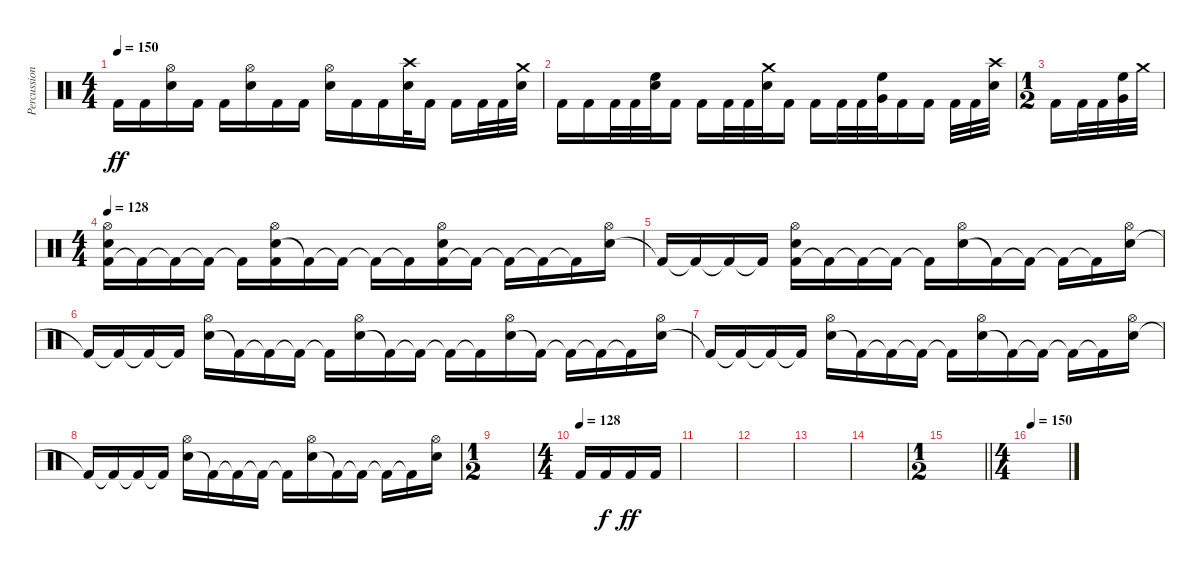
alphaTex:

\track ("Percussion" "Percussion") {instrument percussion}
\staff {score}
\articulation defaults
\ts (4 4)
\tempo 150
\clef neutral
\ks c "Kick (hit) 2".16{dy ff} "Kick (hit) 2".16
("Electric Snare (hit)" "Hi-Hat (open)").16 "Kick (hit) 2".16 "Kick (hit) 2".16 ("Electric Snare (hit)" "Hi-Hat (open)").16 "Kick (hit) 2".16 "Kick (hit) 2".16 ("Electric Snare (hit)" "Hi-Hat (open)").16 "Kick (hit) 2".16 "Kick (hit) 2".16 ("Crash high (hit)" "Electric Snare (hit)").32 "Kick (hit) 2".16 "Kick (hit) 2".16 "Kick (hit) 2".32 "Kick (hit) 2".32 ("Crash medium (hit)" "Electric Snare (hit)").32 |
"Kick (hit) 2".16 "Kick (hit) 2".16 "Kick (hit) 2".32 "Kick (hit) 2".32 ("High Floor Tom (hit)" "Electric Snare (hit)").32 "Kick (hit) 2".16 "Kick (hit) 2".16 "Kick (hit) 2".32 "Kick (hit) 2".32 ("Crash medium (hit)" "Electric Snare (hit)").32 "Kick (hit) 2".16 "Kick (hit) 2".16 "Kick (hit) 2".32 "Kick (hit) 2".32 ("High Floor Tom (hit)" "Very Low Tom (hit)").32 "Kick (hit) 2".16 "Kick (hit) 2".16 "Kick (hit) 2".32 "Kick (hit) 2".32 ("Crash high (hit)" "Electric Snare (hit)").32 |
\ts (1 2)
"Kick (hit) 2".16 "Kick (hit) 2".32 "Kick (hit) 2".32 ("High Floor Tom (hit)" "Very Low Tom (hit)").32 "Crash medium (hit)".32 |
\ts (4 4)
\tempo 128
("Kick (hit) 2" "Hi-Hat (open)" "Electric Snare (hit)").16 "Kick (hit) 2"{t}.16 "Kick (hit) 2"{t}.16 "Kick (hit) 2"{t}.16 "Kick (hit) 2"{t}.16 ("Electric Snare (hit)" "Hi-Hat (open)" "Kick (hit) 2").16 "Kick (hit) 2"{t}.16 "Kick (hit) 2"{t}.16 "Kick (hit) 2"{t}.16 "Kick (hit) 2"{t}.16 ("Kick (hit) 2" "Hi-Hat (open)" "Electric Snare (hit)").16 "Kick (hit) 2"{t}.16 "Kick (hit) 2"{t}.16 "Kick (hit) 2"{t}.16 "Kick (hit) 2"{t}.16 ("Electric Snare (hit)" "Hi-Hat (open)").16 |
"Kick (hit) 2"{t}.16 "Kick (hit) 2"{t}.16 "Kick (hit) 2"{t}.16 "Kick (hit) 2"{t}.16 ("Kick (hit) 2" "Hi-Hat (open)" "Electric Snare (hit)").16 "Kick (hit) 2"{t}.16 "Kick (hit) 2"{t}.16 "Kick (hit) 2"{t}.16 "Kick (hit) 2"{t}.16 ("Electric Snare (hit)" "Hi-Hat (open)").16 "Kick (hit) 2"{t}.16 "Kick (hit) 2"{t}.16 "Kick (hit) 2"{t}.16 "Kick (hit) 2"{t}.16 ("Electric Snare (hit)" "Hi-Hat (open)").16 |
"Kick (hit) 2"{t}.16 "Kick (hit) 2"{t}.16 "Kick (hit) 2"{t}.16 "Kick (hit) 2"{t}.16 ("Electric Snare (hit)" "Hi-Hat (open)").16 "Kick (hit) 2"{t}.16 "Kick (hit) 2"{t}.16 "Kick (hit) 2"{t}.16 "Kick (hit) 2"{t}.16 ("Electric Snare (hit)" "Hi-Hat (open)").16 "Kick (hit) 2"{t}.16 "Kick (hit) 2"{t}.16 "Kick (hit) 2"{t}.16 "Kick (hit) 2"{t}.16 ("Electric Snare (hit)" "Hi-Hat (open)").16 "Kick (hit) 2"{t}.16 "Kick (hit) 2"{t}.16 "Kick (hit) 2"{t}.16 "Kick (hit) 2"{t}.16 ("Electric Snare (hit)" "Hi-Hat (open)").16 |
"Kick (hit) 2"{t}.16 "Kick (hit) 2"{t}.16 "Kick (hit) 2"{t}.16 "Kick (hit) 2"{t}.16 ("Electric Snare (hit)" "Hi-Hat (open)").16 "Kick (hit) 2"{t}.16 "Kick (hit) 2"{t}.16 "Kick (hit) 2"{t}.16 "Kick (hit) 2"{t}.16 ("Electric Snare (hit)" "Hi-Hat (open)").16 "Kick (hit) 2"{t}.16 "Kick (hit) 2"{t}.16 "Kick (hit) 2"{t}.16 "Kick (hit) 2"{t}.16 ("Electric Snare (hit)" "Hi-Hat (open)").16 |
"Kick (hit) 2"{t}.16 "Kick (hit) 2"{t}.16 "Kick (hit) 2"{t}.16 "Kick (hit) 2"{t}.16 ("Electric Snare (hit)" "Hi-Hat (open)").16 "Kick (hit) 2"{t}.16 "Kick (hit) 2"{t}.16 "Kick (hit) 2"{t}.16 "Kick (hit) 2"{t}.16 ("Electric Snare (hit)" "Hi-Hat (open)").16 "Kick (hit) 2"{t}.16 "Kick (hit) 2"{t}.16 "Kick (hit) 2"{t}.16 "Kick (hit) 2"{t}.16 ("Electric Snare (hit)" "Hi-Hat (open)").16 |
\ts (1 2)
|
\ts (4 4)
\tempo (128)
"Kick (hit) 2".16 "Kick (hit) 2".16{dy f} "Kick (hit) 2".16{dy ff} "Kick (hit) 2".16 |
|
|
|
|
\ts (1 2)
\barLineRight lightlight
|
\ts (4 4)
\tempo 150
